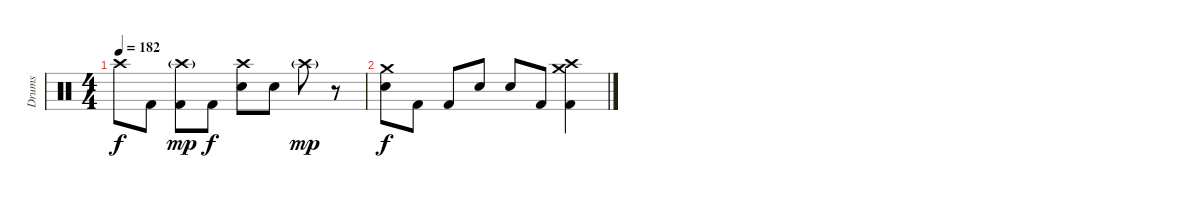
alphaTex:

\track ("Drums" "Drums") {instrument percussion}
\staff {score}
\articulation defaults
\ts (4 4)
\tempo 182
\clef neutral
\ks c "Crash high (hit)".8{dy f} "Kick (hit) 2".8
("Kick (hit) 2" "Crash high (hit)"{g}).8{dy mp} "Kick (hit) 2".8{dy f} ("Crash high (hit)" "Electric Snare (hit)").8 "Electric Snare (hit)".8 "Crash high (hit)"{g}.8{dy mp} r.8 |
("Electric Snare (hit)" "Crash medium (hit)").8{dy f} "Kick (hit) 2".8 "Kick (hit) 2".8 "Electric Snare (hit)".8 "Electric Snare (hit)".8 "Kick (hit) 2".8 ("Kick (hit) 2" "Crash medium (hit)" "Crash high (hit)").4
